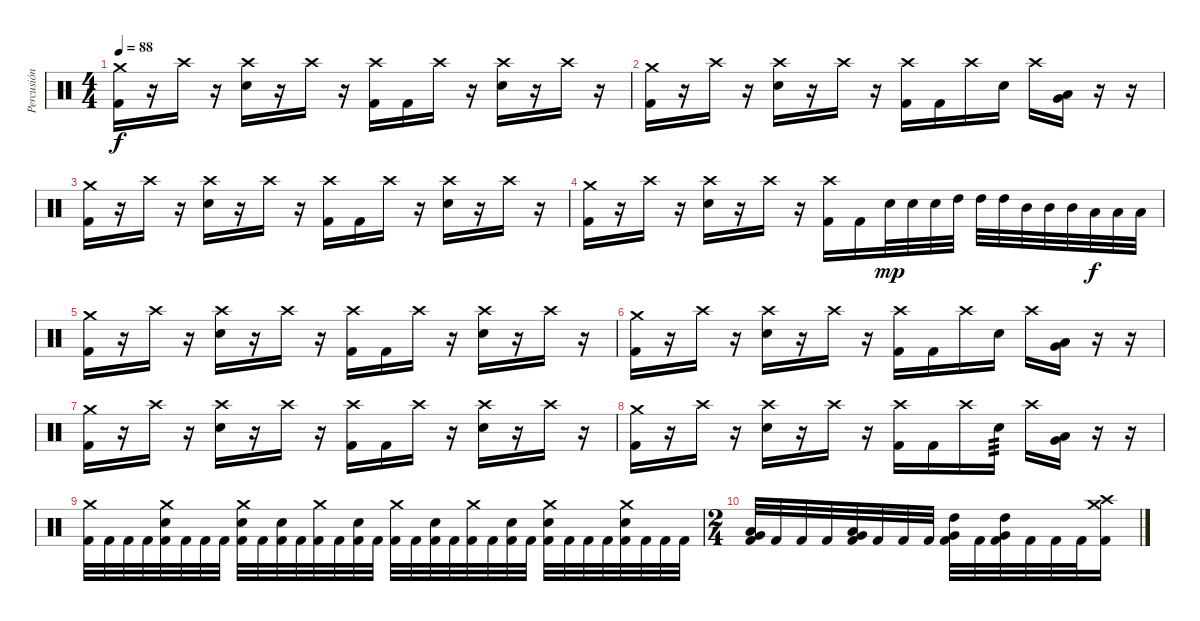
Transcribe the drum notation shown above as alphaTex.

\track ("Percusión" "Percusión") {instrument percussion}
\staff {score}
\articulation defaults
\ts (4 4)
\tempo 88
\clef neutral
\ks c
("Crash medium (hit)" "Kick (hit) 2").16{dy f} r.16 "Crash high (hit)".16 r.16 ("Crash high (hit)" "Electric Snare (hit)").16 r.16 "Crash high (hit)".16 r.16 ("Crash high (hit)" "Kick (hit) 2").16 "Kick (hit) 2".16 "Crash high (hit)".16 r.16 ("Crash high (hit)" "Electric Snare (hit)").16 r.16 "Crash high (hit)".16 r.16 |
("Crash medium (hit)" "Kick (hit) 2").16 r.16 "Crash high (hit)".16 r.16 ("Crash high (hit)" "Electric Snare (hit)").16 r.16 "Crash high (hit)".16 r.16 ("Crash high (hit)" "Kick (hit) 2").16 "Kick (hit) 2".16 "Crash high (hit)".16 "Electric Snare (hit)".16 "Crash high (hit)".16 ("Low Tom (hit)" "Very Low Tom (hit)").16 r.16 r.16 |
("Crash medium (hit)" "Kick (hit) 2").16 r.16 "Crash high (hit)".16 r.16 ("Crash high (hit)" "Electric Snare (hit)").16 r.16 "Crash high (hit)".16 r.16 ("Crash high (hit)" "Kick (hit) 2").16 "Kick (hit) 2".16 "Crash high (hit)".16 r.16 ("Crash high (hit)" "Electric Snare (hit)").16 r.16 "Crash high (hit)".16 r.16 |
("Crash medium (hit)" "Kick (hit) 2").16 r.16 "Crash high (hit)".16 r.16 ("Crash high (hit)" "Electric Snare (hit)").16 r.16 "Crash high (hit)".16 r.16 ("Crash high (hit)" "Kick (hit) 2").16 "Kick (hit) 2".16 "Electric Snare (hit)".32{dy mp} "Electric Snare (hit)".32 "Electric Snare (hit)".32 "High Tom (hit)".32 "High Tom (hit)".32 "High Tom (hit)".32 "Mid Tom (hit)".32 "Mid Tom (hit)".32 "Mid Tom (hit)".32 "Low Tom (hit)".32{dy f} "Low Tom (hit)".32 "Low Tom (hit)".32 |
("Crash medium (hit)" "Kick (hit) 2").16 r.16 "Crash high (hit)".16 r.16 ("Crash high (hit)" "Electric Snare (hit)").16 r.16 "Crash high (hit)".16 r.16 ("Crash high (hit)" "Kick (hit) 2").16 "Kick (hit) 2".16 "Crash high (hit)".16 r.16 ("Crash high (hit)" "Electric Snare (hit)").16 r.16 "Crash high (hit)".16 r.16 |
("Crash medium (hit)" "Kick (hit) 2").16 r.16 "Crash high (hit)".16 r.16 ("Crash high (hit)" "Electric Snare (hit)").16 r.16 "Crash high (hit)".16 r.16 ("Crash high (hit)" "Kick (hit) 2").16 "Kick (hit) 2".16 "Crash high (hit)".16 "Electric Snare (hit)".16 "Crash high (hit)".16 ("Low Tom (hit)" "Very Low Tom (hit)").16 r.16 r.16 |
("Crash medium (hit)" "Kick (hit) 2").16 r.16 "Crash high (hit)".16 r.16 ("Crash high (hit)" "Electric Snare (hit)").16 r.16 "Crash high (hit)".16 r.16 ("Crash high (hit)" "Kick (hit) 2").16 "Kick (hit) 2".16 "Crash high (hit)".16 r.16 ("Crash high (hit)" "Electric Snare (hit)").16 r.16 "Crash high (hit)".16 r.16 |
("Crash medium (hit)" "Kick (hit) 2").16 r.16 "Crash high (hit)".16 r.16 ("Crash high (hit)" "Electric Snare (hit)").16 r.16 "Crash high (hit)".16 r.16 ("Crash high (hit)" "Kick (hit) 2").16 "Kick (hit) 2".16 "Crash high (hit)".16 "Electric Snare (hit)".16{tp 3} "Crash high (hit)".16 ("Low Tom (hit)" "Very Low Tom (hit)").16 r.16 r.16 |
("Crash medium (hit)" "Kick (hit) 2").32 "Kick (hit) 2".32 "Kick (hit) 2".32 "Kick (hit) 2".32 ("Crash medium (hit)" "Electric Snare (hit)" "Kick (hit) 2").32 "Kick (hit) 2".32 "Kick (hit) 2".32 "Kick (hit) 2".32 ("Crash medium (hit)" "Electric Snare (hit)" "Kick (hit) 2").32 "Kick (hit) 2".32 ("Electric Snare (hit)" "Kick (hit) 2").32 "Kick (hit) 2".32 ("Crash medium (hit)" "Kick (hit) 2").32 "Kick (hit) 2".32 ("Electric Snare (hit)" "Kick (hit) 2").32 "Kick (hit) 2".32 ("Crash medium (hit)" "Kick (hit) 2").32 "Kick (hit) 2".32 ("Electric Snare (hit)" "Kick (hit) 2").32 "Kick (hit) 2".32 ("Crash medium (hit)" "Kick (hit) 2").32 "Kick (hit) 2".32 ("Electric Snare (hit)" "Kick (hit) 2").32 "Kick (hit) 2".32 ("Crash medium (hit)" "Electric Snare (hit)" "Kick (hit) 2").32 "Kick (hit) 2".32 "Kick (hit) 2".32 "Kick (hit) 2".32 ("Crash medium (hit)" "Electric Snare (hit)" "Kick (hit) 2").32 "Kick (hit) 2".32 "Kick (hit) 2".32 "Kick (hit) 2".32 |
\ts (2 4)
("Low Tom (hit)" "Very Low Tom (hit)" "Kick (hit) 2").32 "Kick (hit) 2".32 "Kick (hit) 2".32 "Kick (hit) 2".32 ("Low Tom (hit)" "Very Low Tom (hit)" "Kick (hit) 2").32 "Kick (hit) 2".32 "Kick (hit) 2".32 "Kick (hit) 2".32 ("High Tom (hit)" "Very Low Tom (hit)" "Kick (hit) 2").32 "Kick (hit) 2".32 ("High Tom (hit)" "Very Low Tom (hit)" "Kick (hit) 2").32 "Kick (hit) 2".32 "Kick (hit) 2".32 "Kick (hit) 2".32 ("Crash high (hit)" "Crash medium (hit)" "Kick (hit) 2").16
